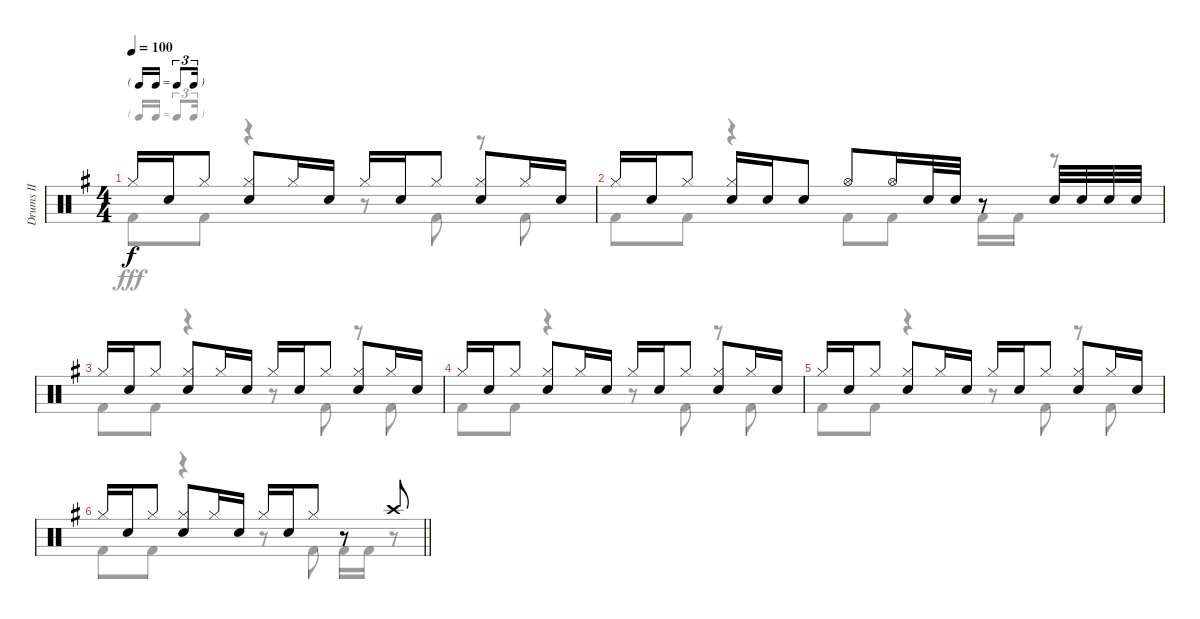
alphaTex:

\track ("Drums II" "Drums II") {instrument percussion}
\staff {score}
\articulation defaults
\voice
\ts (4 4)
\tf triplet16th
\tempo 100
\clef neutral
\ks g "Hi-Hat (closed)".16{dy f} "Snare (hit) 2".16 "Hi-Hat (closed)".8
("Hi-Hat (closed)" "Snare (hit) 2").8 "Hi-Hat (closed)".16 "Snare (hit) 2".16 "Hi-Hat (closed)".16 "Snare (hit) 2".16 "Hi-Hat (closed)".8 ("Hi-Hat (closed)" "Snare (hit) 2").8 "Hi-Hat (closed)".16 "Snare (hit) 2".16 |
"Hi-Hat (closed)".16 "Snare (hit) 2".16 "Hi-Hat (closed)".8 ("Hi-Hat (closed)" "Snare (hit) 2").16 "Snare (hit) 2".16 "Snare (hit) 2".8 "Hi-Hat (open)".8 "Hi-Hat (open)".16 "Snare (hit) 2".32 "Snare (hit) 2".32 r.8 "Snare (hit) 2".32 "Snare (hit) 2".32 "Snare (hit) 2".32 "Snare (hit) 2".32 |
"Hi-Hat (closed)".16 "Snare (hit) 2".16 "Hi-Hat (closed)".8 ("Hi-Hat (closed)" "Snare (hit) 2").8 "Hi-Hat (closed)".16 "Snare (hit) 2".16 "Hi-Hat (closed)".16 "Snare (hit) 2".16 "Hi-Hat (closed)".8 ("Hi-Hat (closed)" "Snare (hit) 2").8 "Hi-Hat (closed)".16 "Snare (hit) 2".16 |
"Hi-Hat (closed)".16 "Snare (hit) 2".16 "Hi-Hat (closed)".8 ("Hi-Hat (closed)" "Snare (hit) 2").8 "Hi-Hat (closed)".16 "Snare (hit) 2".16 "Hi-Hat (closed)".16 "Snare (hit) 2".16 "Hi-Hat (closed)".8 ("Hi-Hat (closed)" "Snare (hit) 2").8 "Hi-Hat (closed)".16 "Snare (hit) 2".16 |
"Hi-Hat (closed)".16 "Snare (hit) 2".16 "Hi-Hat (closed)".8 ("Hi-Hat (closed)" "Snare (hit) 2").8 "Hi-Hat (closed)".16 "Snare (hit) 2".16 "Hi-Hat (closed)".16 "Snare (hit) 2".16 "Hi-Hat (closed)".8 ("Hi-Hat (closed)" "Snare (hit) 2").8 "Hi-Hat (closed)".16 "Snare (hit) 2".16 |
\barLineRight lightlight "Hi-Hat (closed)".16 "Snare (hit) 2".16 "Hi-Hat (closed)".8
("Hi-Hat (closed)" "Snare (hit) 2").8 "Hi-Hat (closed)".16 "Snare (hit) 2".16 "Hi-Hat (closed)".16 "Snare (hit) 2".16 "Hi-Hat (closed)".8 r.8 "Crash high (hit)".8
\voice
\clef neutral
\ottava regular
\simile none
\ks g "Kick (hit) 2".8{dy fff} "Kick (hit) 2".8
r.4 r.8 "Kick (hit) 2".8 r.8 "Kick (hit) 2".8 |
"Kick (hit) 2".8 "Kick (hit) 2".8 r.4 "Kick (hit) 2".8 "Kick (hit) 2".8 "Kick (hit) 2".16 "Kick (hit) 2".16 r.8 |
"Kick (hit) 2".8 "Kick (hit) 2".8 r.4 r.8 "Kick (hit) 2".8 r.8 "Kick (hit) 2".8 |
"Kick (hit) 2".8 "Kick (hit) 2".8 r.4 r.8 "Kick (hit) 2".8 r.8 "Kick (hit) 2".8 |
"Kick (hit) 2".8 "Kick (hit) 2".8 r.4 r.8 "Kick (hit) 2".8 r.8 "Kick (hit) 2".8 |
\barLineRight lightlight "Kick (hit) 2".8 "Kick (hit) 2".8
r.4 r.8 "Kick (hit) 2".8 "Kick (hit) 2".16 "Kick (hit) 2".16 r.8
